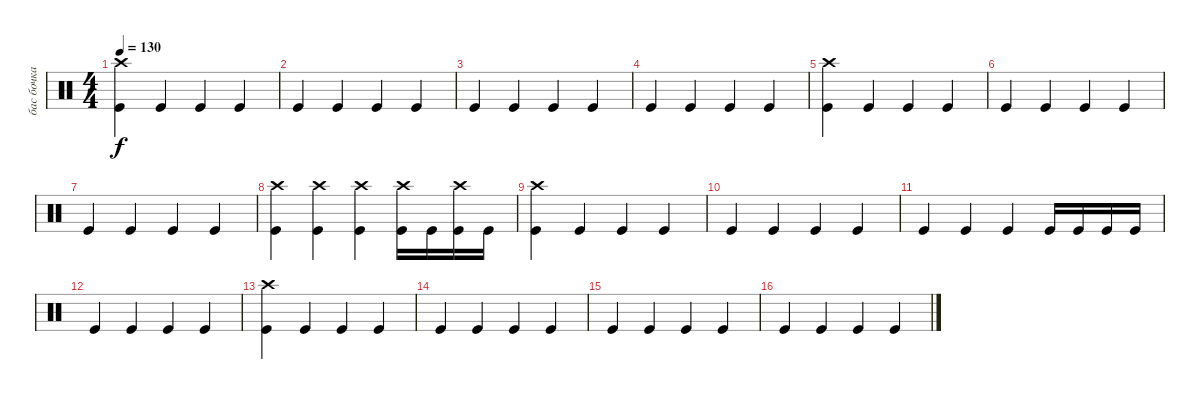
\track ("бас бочка" "бас бочка") {instrument percussion}
\staff {score}
\articulation defaults
\ts (4 4)
\tempo 130
\clef neutral
\ks c
("Crash high (hit)" "Kick (hit)").4{dy f} "Kick (hit)".4 "Kick (hit)".4 "Kick (hit)".4 |
"Kick (hit)".4 "Kick (hit)".4 "Kick (hit)".4 "Kick (hit)".4 |
"Kick (hit)".4 "Kick (hit)".4 "Kick (hit)".4 "Kick (hit)".4 |
"Kick (hit)".4 "Kick (hit)".4 "Kick (hit)".4 "Kick (hit)".4 |
("Crash high (hit)" "Kick (hit)").4 "Kick (hit)".4 "Kick (hit)".4 "Kick (hit)".4 |
"Kick (hit)".4 "Kick (hit)".4 "Kick (hit)".4 "Kick (hit)".4 |
"Kick (hit)".4 "Kick (hit)".4 "Kick (hit)".4 "Kick (hit)".4 |
("Crash high (hit)" "Kick (hit)").4 ("Crash high (hit)" "Kick (hit)").4 ("Crash high (hit)" "Kick (hit)").4 ("Crash high (hit)" "Kick (hit)").16 "Kick (hit)".16 ("Crash high (hit)" "Kick (hit)").16 "Kick (hit)".16 |
("Crash high (hit)" "Kick (hit)").4 "Kick (hit)".4 "Kick (hit)".4 "Kick (hit)".4 |
"Kick (hit)".4 "Kick (hit)".4 "Kick (hit)".4 "Kick (hit)".4 |
"Kick (hit)".4 "Kick (hit)".4 "Kick (hit)".4 "Kick (hit)".16 "Kick (hit)".16 "Kick (hit)".16 "Kick (hit)".16 |
"Kick (hit)".4 "Kick (hit)".4 "Kick (hit)".4 "Kick (hit)".4 |
("Crash high (hit)" "Kick (hit)").4 "Kick (hit)".4 "Kick (hit)".4 "Kick (hit)".4 |
"Kick (hit)".4 "Kick (hit)".4 "Kick (hit)".4 "Kick (hit)".4 |
"Kick (hit)".4 "Kick (hit)".4 "Kick (hit)".4 "Kick (hit)".4 |
"Kick (hit)".4 "Kick (hit)".4 "Kick (hit)".4 "Kick (hit)".4
